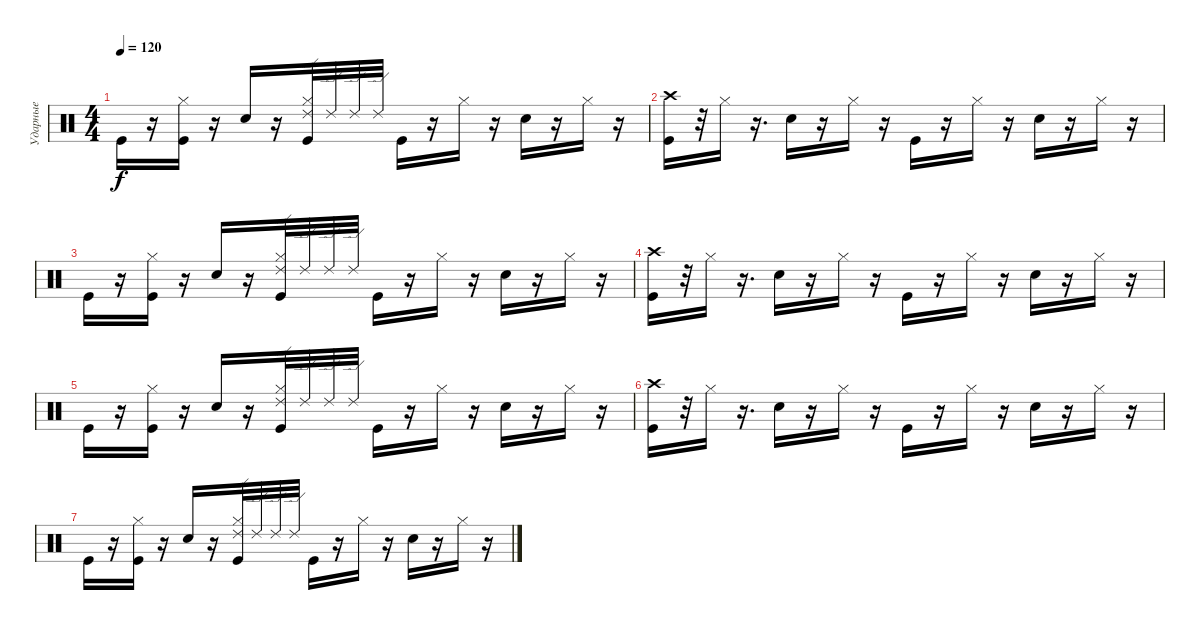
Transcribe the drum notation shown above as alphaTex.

\track ("Ударные" "Ударные") {instrument percussion}
\staff {score}
\articulation defaults
\ts (4 4)
\tempo 120
\clef neutral
\ks c "Kick (hit)".16{dy f}
r.16 ("Hi-Hat (closed)" "Kick (hit)").16 r.16 "Electric Snare (hit)".16 r.16 ("Hi-Hat (closed)" "Kick (hit)" "Ride (edge) 2").32 "Ride (edge) 2".32 "Ride (edge) 2".32 "Ride (edge) 2".32 "Kick (hit)".16 r.16 "Hi-Hat (closed)".16 r.16 "Electric Snare (hit)".16 r.16 "Hi-Hat (closed)".16 r.16 |
("Crash high (hit)" "Kick (hit)").16 r.32 "Hi-Hat (closed)".16 r.16{d} "Electric Snare (hit)".16 r.16 "Hi-Hat (closed)".16 r.16 "Kick (hit)".16 r.16 "Hi-Hat (closed)".16 r.16 "Electric Snare (hit)".16 r.16 "Hi-Hat (closed)".16 r.16 |
"Kick (hit)".16 r.16 ("Hi-Hat (closed)" "Kick (hit)").16 r.16 "Electric Snare (hit)".16 r.16 ("Hi-Hat (closed)" "Kick (hit)" "Ride (edge) 2").32 "Ride (edge) 2".32 "Ride (edge) 2".32 "Ride (edge) 2".32 "Kick (hit)".16 r.16 "Hi-Hat (closed)".16 r.16 "Electric Snare (hit)".16 r.16 "Hi-Hat (closed)".16 r.16 |
("Crash high (hit)" "Kick (hit)").16 r.32 "Hi-Hat (closed)".16 r.16{d} "Electric Snare (hit)".16 r.16 "Hi-Hat (closed)".16 r.16 "Kick (hit)".16 r.16 "Hi-Hat (closed)".16 r.16 "Electric Snare (hit)".16 r.16 "Hi-Hat (closed)".16 r.16 |
"Kick (hit)".16 r.16 ("Hi-Hat (closed)" "Kick (hit)").16 r.16 "Electric Snare (hit)".16 r.16 ("Hi-Hat (closed)" "Kick (hit)" "Ride (edge) 2").32 "Ride (edge) 2".32 "Ride (edge) 2".32 "Ride (edge) 2".32 "Kick (hit)".16 r.16 "Hi-Hat (closed)".16 r.16 "Electric Snare (hit)".16 r.16 "Hi-Hat (closed)".16 r.16 |
("Crash high (hit)" "Kick (hit)").16 r.32 "Hi-Hat (closed)".16 r.16{d} "Electric Snare (hit)".16 r.16 "Hi-Hat (closed)".16 r.16 "Kick (hit)".16 r.16 "Hi-Hat (closed)".16 r.16 "Electric Snare (hit)".16 r.16 "Hi-Hat (closed)".16 r.16 |
"Kick (hit)".16 r.16 ("Hi-Hat (closed)" "Kick (hit)").16 r.16 "Electric Snare (hit)".16 r.16 ("Hi-Hat (closed)" "Kick (hit)" "Ride (edge) 2").32 "Ride (edge) 2".32 "Ride (edge) 2".32 "Ride (edge) 2".32 "Kick (hit)".16 r.16 "Hi-Hat (closed)".16 r.16 "Electric Snare (hit)".16 r.16 "Hi-Hat (closed)".16 r.16
